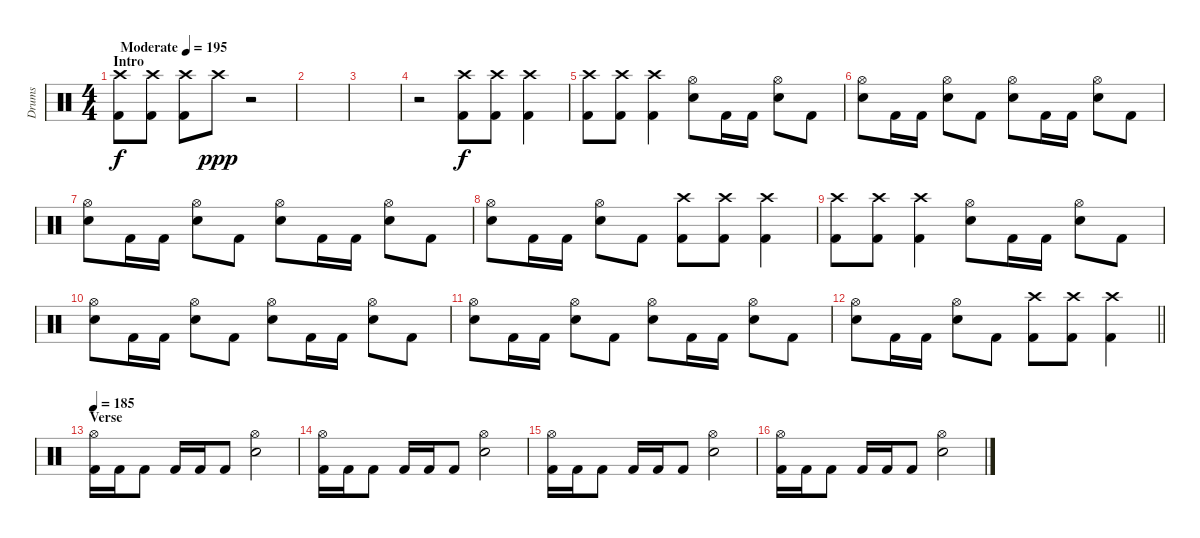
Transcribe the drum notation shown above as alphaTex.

\track ("Drums" "Drums") {instrument percussion}
\staff {score}
\articulation defaults
\ts (4 4)
\section ("" "Intro")
\tempo (195 "Moderate")
\clef neutral
\ks c
("Crash high (hit)" "Kick (hit) 2").8{dy f} ("Crash high (hit)" "Kick (hit) 2").8 ("Crash high (hit)" "Kick (hit) 2").8 "Crash high (hit)".8{dy ppp} r.2 |
|
|
r.2 ("Crash high (hit)" "Kick (hit) 2").8{dy f} ("Crash high (hit)" "Kick (hit) 2").8 ("Crash high (hit)" "Kick (hit) 2").4 |
("Crash high (hit)" "Kick (hit) 2").8 ("Crash high (hit)" "Kick (hit) 2").8 ("Crash high (hit)" "Kick (hit) 2").4 ("Hi-Hat (open)" "Snare (hit) 2").8 "Kick (hit) 2".16 "Kick (hit) 2".16 ("Hi-Hat (open)" "Snare (hit) 2").8 "Kick (hit) 2".8 |
("Hi-Hat (open)" "Snare (hit) 2").8 "Kick (hit) 2".16 "Kick (hit) 2".16 ("Hi-Hat (open)" "Snare (hit) 2").8 "Kick (hit) 2".8 ("Hi-Hat (open)" "Snare (hit) 2").8 "Kick (hit) 2".16 "Kick (hit) 2".16 ("Hi-Hat (open)" "Snare (hit) 2").8 "Kick (hit) 2".8 |
("Hi-Hat (open)" "Snare (hit) 2").8 "Kick (hit) 2".16 "Kick (hit) 2".16 ("Hi-Hat (open)" "Snare (hit) 2").8 "Kick (hit) 2".8 ("Hi-Hat (open)" "Snare (hit) 2").8 "Kick (hit) 2".16 "Kick (hit) 2".16 ("Hi-Hat (open)" "Snare (hit) 2").8 "Kick (hit) 2".8 |
("Hi-Hat (open)" "Snare (hit) 2").8 "Kick (hit) 2".16 "Kick (hit) 2".16 ("Hi-Hat (open)" "Snare (hit) 2").8 "Kick (hit) 2".8 ("Crash high (hit)" "Kick (hit) 2").8 ("Crash high (hit)" "Kick (hit) 2").8 ("Crash high (hit)" "Kick (hit) 2").4 |
("Crash high (hit)" "Kick (hit) 2").8 ("Crash high (hit)" "Kick (hit) 2").8 ("Crash high (hit)" "Kick (hit) 2").4 ("Hi-Hat (open)" "Snare (hit) 2").8 "Kick (hit) 2".16 "Kick (hit) 2".16 ("Hi-Hat (open)" "Snare (hit) 2").8 "Kick (hit) 2".8 |
("Hi-Hat (open)" "Snare (hit) 2").8 "Kick (hit) 2".16 "Kick (hit) 2".16 ("Hi-Hat (open)" "Snare (hit) 2").8 "Kick (hit) 2".8 ("Hi-Hat (open)" "Snare (hit) 2").8 "Kick (hit) 2".16 "Kick (hit) 2".16 ("Hi-Hat (open)" "Snare (hit) 2").8 "Kick (hit) 2".8 |
("Hi-Hat (open)" "Snare (hit) 2").8 "Kick (hit) 2".16 "Kick (hit) 2".16 ("Hi-Hat (open)" "Snare (hit) 2").8 "Kick (hit) 2".8 ("Hi-Hat (open)" "Snare (hit) 2").8 "Kick (hit) 2".16 "Kick (hit) 2".16 ("Hi-Hat (open)" "Snare (hit) 2").8 "Kick (hit) 2".8 |
\barLineRight lightlight
("Hi-Hat (open)" "Snare (hit) 2").8 "Kick (hit) 2".16 "Kick (hit) 2".16 ("Hi-Hat (open)" "Snare (hit) 2").8 "Kick (hit) 2".8 ("Crash high (hit)" "Kick (hit) 2").8 ("Crash high (hit)" "Kick (hit) 2").8 ("Crash high (hit)" "Kick (hit) 2").4 |
\section ("" "Verse")
\tempo 185
("Hi-Hat (open)" "Kick (hit) 2").16 "Kick (hit) 2".16 "Kick (hit) 2".8 "Kick (hit) 2".16 "Kick (hit) 2".16 "Kick (hit) 2".8 ("Hi-Hat (open)" "Snare (hit) 2").2 |
("Hi-Hat (open)" "Kick (hit) 2").16 "Kick (hit) 2".16 "Kick (hit) 2".8 "Kick (hit) 2".16 "Kick (hit) 2".16 "Kick (hit) 2".8 ("Hi-Hat (open)" "Snare (hit) 2").2 |
("Hi-Hat (open)" "Kick (hit) 2").16 "Kick (hit) 2".16 "Kick (hit) 2".8 "Kick (hit) 2".16 "Kick (hit) 2".16 "Kick (hit) 2".8 ("Hi-Hat (open)" "Snare (hit) 2").2 |
("Hi-Hat (open)" "Kick (hit) 2").16 "Kick (hit) 2".16 "Kick (hit) 2".8 "Kick (hit) 2".16 "Kick (hit) 2".16 "Kick (hit) 2".8 ("Hi-Hat (open)" "Snare (hit) 2").2
